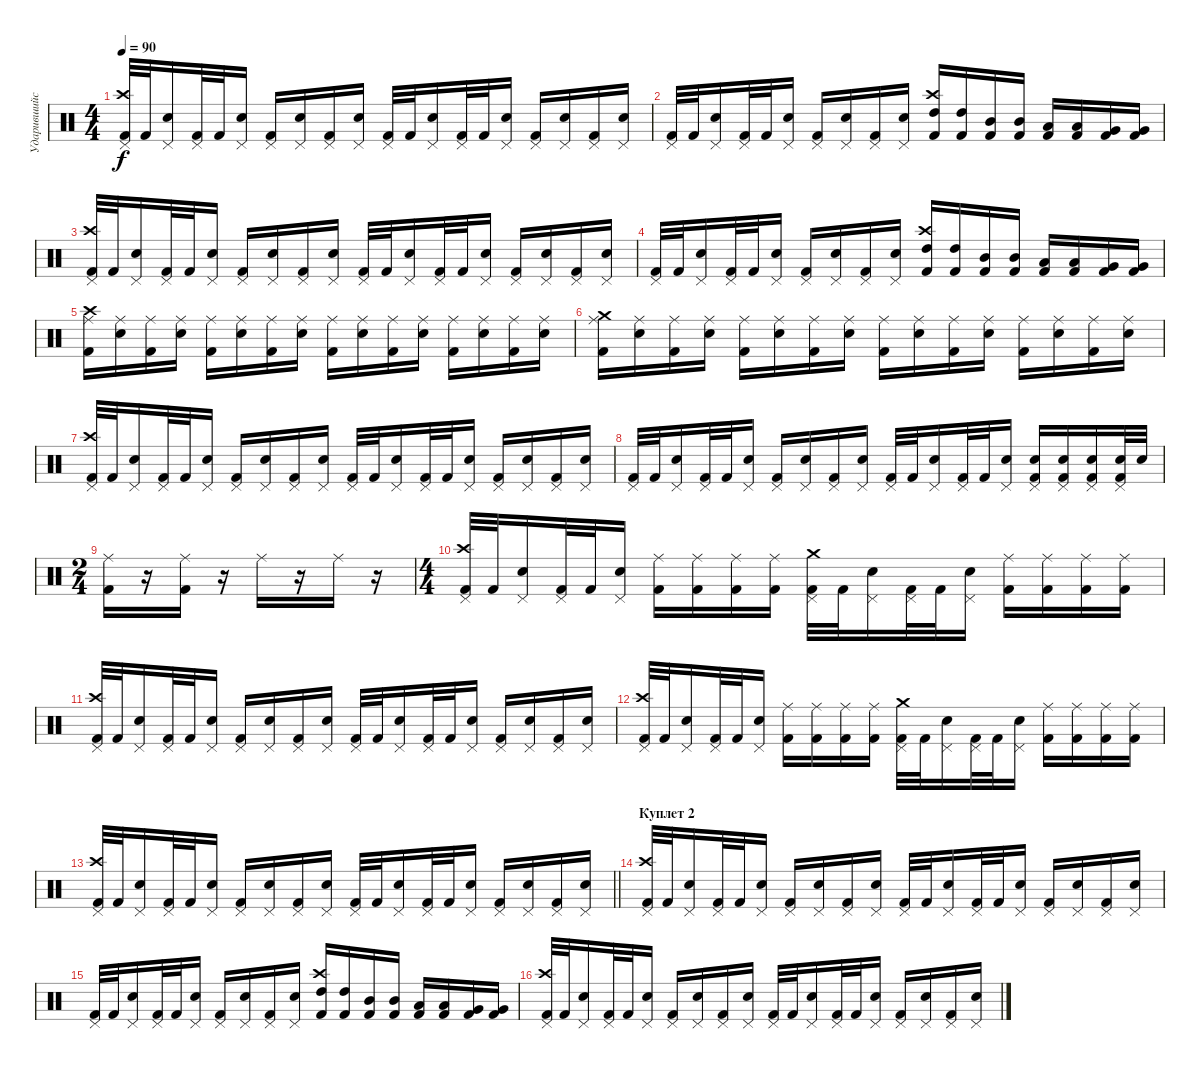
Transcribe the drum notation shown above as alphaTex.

\track ("Ударившийся" "Ударившийс") {instrument percussion}
\staff {score}
\articulation defaults
\ts (4 4)
\tempo 90
\clef neutral
\ks c
("Kick (hit) 2" "Crash high (hit)" "Pedal Hi-Hat (hit)").32{dy f} "Kick (hit) 2".32 ("Snare (hit) 2" "Pedal Hi-Hat (hit)").16 ("Kick (hit) 2" "Pedal Hi-Hat (hit)").32 "Kick (hit) 2".32 ("Snare (hit) 2" "Pedal Hi-Hat (hit)").16 ("Kick (hit) 2" "Pedal Hi-Hat (hit)").16 ("Snare (hit) 2" "Pedal Hi-Hat (hit)").16 ("Kick (hit) 2" "Pedal Hi-Hat (hit)").16 ("Snare (hit) 2" "Pedal Hi-Hat (hit)").16 ("Kick (hit) 2" "Pedal Hi-Hat (hit)").32 "Kick (hit) 2".32 ("Snare (hit) 2" "Pedal Hi-Hat (hit)").16 ("Kick (hit) 2" "Pedal Hi-Hat (hit)").32 "Kick (hit) 2".32 ("Snare (hit) 2" "Pedal Hi-Hat (hit)").16 ("Kick (hit) 2" "Pedal Hi-Hat (hit)").16 ("Snare (hit) 2" "Pedal Hi-Hat (hit)").16 ("Kick (hit) 2" "Pedal Hi-Hat (hit)").16 ("Snare (hit) 2" "Pedal Hi-Hat (hit)").16 |
("Kick (hit) 2" "Pedal Hi-Hat (hit)").32 "Kick (hit) 2".32 ("Snare (hit) 2" "Pedal Hi-Hat (hit)").16 ("Kick (hit) 2" "Pedal Hi-Hat (hit)").32 "Kick (hit) 2".32 ("Snare (hit) 2" "Pedal Hi-Hat (hit)").16 ("Kick (hit) 2" "Pedal Hi-Hat (hit)").16 ("Snare (hit) 2" "Pedal Hi-Hat (hit)").16 ("Kick (hit) 2" "Pedal Hi-Hat (hit)").16 ("Snare (hit) 2" "Pedal Hi-Hat (hit)").16 ("High Tom (hit)" "Kick (hit) 2" "Crash high (hit)").16 ("High Tom (hit)" "Kick (hit) 2").16 ("Mid Tom (hit)" "Kick (hit) 2").16 ("Mid Tom (hit)" "Kick (hit) 2").16 ("Low Tom (hit)" "Kick (hit) 2").16 ("Low Tom (hit)" "Kick (hit) 2").16 ("Very Low Tom (hit)" "Kick (hit) 2").16 ("Very Low Tom (hit)" "Kick (hit) 2").16 |
("Kick (hit) 2" "Crash high (hit)" "Pedal Hi-Hat (hit)").32 "Kick (hit) 2".32 ("Snare (hit) 2" "Pedal Hi-Hat (hit)").16 ("Kick (hit) 2" "Pedal Hi-Hat (hit)").32 "Kick (hit) 2".32 ("Snare (hit) 2" "Pedal Hi-Hat (hit)").16 ("Kick (hit) 2" "Pedal Hi-Hat (hit)").16 ("Snare (hit) 2" "Pedal Hi-Hat (hit)").16 ("Kick (hit) 2" "Pedal Hi-Hat (hit)").16 ("Snare (hit) 2" "Pedal Hi-Hat (hit)").16 ("Kick (hit) 2" "Pedal Hi-Hat (hit)").32 "Kick (hit) 2".32 ("Snare (hit) 2" "Pedal Hi-Hat (hit)").16 ("Kick (hit) 2" "Pedal Hi-Hat (hit)").32 "Kick (hit) 2".32 ("Snare (hit) 2" "Pedal Hi-Hat (hit)").16 ("Kick (hit) 2" "Pedal Hi-Hat (hit)").16 ("Snare (hit) 2" "Pedal Hi-Hat (hit)").16 ("Kick (hit) 2" "Pedal Hi-Hat (hit)").16 ("Snare (hit) 2" "Pedal Hi-Hat (hit)").16 |
("Kick (hit) 2" "Pedal Hi-Hat (hit)").32 "Kick (hit) 2".32 ("Snare (hit) 2" "Pedal Hi-Hat (hit)").16 ("Kick (hit) 2" "Pedal Hi-Hat (hit)").32 "Kick (hit) 2".32 ("Snare (hit) 2" "Pedal Hi-Hat (hit)").16 ("Kick (hit) 2" "Pedal Hi-Hat (hit)").16 ("Snare (hit) 2" "Pedal Hi-Hat (hit)").16 ("Kick (hit) 2" "Pedal Hi-Hat (hit)").16 ("Snare (hit) 2" "Pedal Hi-Hat (hit)").16 ("High Tom (hit)" "Kick (hit) 2" "Crash high (hit)").16 ("High Tom (hit)" "Kick (hit) 2").16 ("Mid Tom (hit)" "Kick (hit) 2").16 ("Mid Tom (hit)" "Kick (hit) 2").16 ("Low Tom (hit)" "Kick (hit) 2").16 ("Low Tom (hit)" "Kick (hit) 2").16 ("Very Low Tom (hit)" "Kick (hit) 2").16 ("Very Low Tom (hit)" "Kick (hit) 2").16 |
("Kick (hit) 2" "Ride (middle)" "Crash high (hit)").16 ("Snare (hit) 2" "Ride (middle)").16 ("Kick (hit) 2" "Ride (middle)").16 ("Snare (hit) 2" "Ride (middle)").16 ("Kick (hit) 2" "Ride (middle)").16 ("Snare (hit) 2" "Ride (middle)").16 ("Kick (hit) 2" "Ride (middle)").16 ("Snare (hit) 2" "Ride (middle)").16 ("Kick (hit) 2" "Ride (middle)").16 ("Snare (hit) 2" "Ride (middle)").16 ("Kick (hit) 2" "Ride (middle)").16 ("Snare (hit) 2" "Ride (middle)").16 ("Kick (hit) 2" "Ride (middle)").16 ("Snare (hit) 2" "Ride (middle)").16 ("Kick (hit) 2" "Ride (middle)").16 ("Snare (hit) 2" "Ride (middle)").16 |
("Kick (hit) 2" "Ride (middle)" "Crash medium (hit)").16 ("Snare (hit) 2" "Ride (middle)").16 ("Kick (hit) 2" "Ride (middle)").16 ("Snare (hit) 2" "Ride (middle)").16 ("Kick (hit) 2" "Ride (middle)").16 ("Snare (hit) 2" "Ride (middle)").16 ("Kick (hit) 2" "Ride (middle)").16 ("Snare (hit) 2" "Ride (middle)").16 ("Kick (hit) 2" "Ride (middle)").16 ("Snare (hit) 2" "Ride (middle)").16 ("Kick (hit) 2" "Ride (middle)").16 ("Snare (hit) 2" "Ride (middle)").16 ("Kick (hit) 2" "Ride (middle)").16 ("Snare (hit) 2" "Ride (middle)").16 ("Kick (hit) 2" "Ride (middle)").16 ("Snare (hit) 2" "Ride (middle)").16 |
("Kick (hit) 2" "Crash high (hit)" "Pedal Hi-Hat (hit)").32 "Kick (hit) 2".32 ("Snare (hit) 2" "Pedal Hi-Hat (hit)").16 ("Kick (hit) 2" "Pedal Hi-Hat (hit)").32 "Kick (hit) 2".32 ("Snare (hit) 2" "Pedal Hi-Hat (hit)").16 ("Kick (hit) 2" "Pedal Hi-Hat (hit)").16 ("Snare (hit) 2" "Pedal Hi-Hat (hit)").16 ("Kick (hit) 2" "Pedal Hi-Hat (hit)").16 ("Snare (hit) 2" "Pedal Hi-Hat (hit)").16 ("Kick (hit) 2" "Pedal Hi-Hat (hit)").32 "Kick (hit) 2".32 ("Snare (hit) 2" "Pedal Hi-Hat (hit)").16 ("Kick (hit) 2" "Pedal Hi-Hat (hit)").32 "Kick (hit) 2".32 ("Snare (hit) 2" "Pedal Hi-Hat (hit)").16 ("Kick (hit) 2" "Pedal Hi-Hat (hit)").16 ("Snare (hit) 2" "Pedal Hi-Hat (hit)").16 ("Kick (hit) 2" "Pedal Hi-Hat (hit)").16 ("Snare (hit) 2" "Pedal Hi-Hat (hit)").16 |
("Kick (hit) 2" "Pedal Hi-Hat (hit)").32 "Kick (hit) 2".32 ("Snare (hit) 2" "Pedal Hi-Hat (hit)").16 ("Kick (hit) 2" "Pedal Hi-Hat (hit)").32 "Kick (hit) 2".32 ("Snare (hit) 2" "Pedal Hi-Hat (hit)").16 ("Kick (hit) 2" "Pedal Hi-Hat (hit)").16 ("Snare (hit) 2" "Pedal Hi-Hat (hit)").16 ("Kick (hit) 2" "Pedal Hi-Hat (hit)").16 ("Snare (hit) 2" "Pedal Hi-Hat (hit)").16 ("Kick (hit) 2" "Pedal Hi-Hat (hit)").32 "Kick (hit) 2".32 ("Snare (hit) 2" "Pedal Hi-Hat (hit)").16 ("Kick (hit) 2" "Pedal Hi-Hat (hit)").32 "Kick (hit) 2".32 ("Snare (hit) 2" "Pedal Hi-Hat (hit)").16 ("Snare (hit) 2" "Kick (hit) 2" "Pedal Hi-Hat (hit)").16 ("Snare (hit) 2" "Kick (hit) 2" "Pedal Hi-Hat (hit)").16 ("Snare (hit) 2" "Kick (hit) 2" "Pedal Hi-Hat (hit)").16 ("Snare (hit) 2" "Kick (hit) 2" "Pedal Hi-Hat (hit)").32 "Snare (hit) 2".32 |
\ts (2 4)
("Kick (hit) 2" "Ride (middle)").16 r.16 ("Kick (hit) 2" "Ride (middle)").16 r.16 "Ride (middle)".16 r.16 "Ride (middle)".16 r.16 |
\ts (4 4)
("Kick (hit) 2" "Crash high (hit)" "Pedal Hi-Hat (hit)").32 "Kick (hit) 2".32 ("Snare (hit) 2" "Pedal Hi-Hat (hit)").16 ("Kick (hit) 2" "Pedal Hi-Hat (hit)").32 "Kick (hit) 2".32 ("Snare (hit) 2" "Pedal Hi-Hat (hit)").16 ("Kick (hit) 2" "Ride (middle)").16 ("Kick (hit) 2" "Ride (middle)").16 ("Kick (hit) 2" "Ride (middle)").16 ("Kick (hit) 2" "Ride (middle)").16 ("Kick (hit) 2" "Crash medium (hit)" "Pedal Hi-Hat (hit)").32 "Kick (hit) 2".32 ("Snare (hit) 2" "Pedal Hi-Hat (hit)").16 ("Kick (hit) 2" "Pedal Hi-Hat (hit)").32 "Kick (hit) 2".32 ("Snare (hit) 2" "Pedal Hi-Hat (hit)").16 ("Kick (hit) 2" "Ride (middle)").16 ("Kick (hit) 2" "Ride (middle)").16 ("Kick (hit) 2" "Ride (middle)").16 ("Kick (hit) 2" "Ride (middle)").16 |
("Kick (hit) 2" "Crash high (hit)" "Pedal Hi-Hat (hit)").32 "Kick (hit) 2".32 ("Snare (hit) 2" "Pedal Hi-Hat (hit)").16 ("Kick (hit) 2" "Pedal Hi-Hat (hit)").32 "Kick (hit) 2".32 ("Snare (hit) 2" "Pedal Hi-Hat (hit)").16 ("Kick (hit) 2" "Pedal Hi-Hat (hit)").16 ("Snare (hit) 2" "Pedal Hi-Hat (hit)").16 ("Kick (hit) 2" "Pedal Hi-Hat (hit)").16 ("Snare (hit) 2" "Pedal Hi-Hat (hit)").16 ("Kick (hit) 2" "Pedal Hi-Hat (hit)").32 "Kick (hit) 2".32 ("Snare (hit) 2" "Pedal Hi-Hat (hit)").16 ("Kick (hit) 2" "Pedal Hi-Hat (hit)").32 "Kick (hit) 2".32 ("Snare (hit) 2" "Pedal Hi-Hat (hit)").16 ("Kick (hit) 2" "Pedal Hi-Hat (hit)").16 ("Snare (hit) 2" "Pedal Hi-Hat (hit)").16 ("Kick (hit) 2" "Pedal Hi-Hat (hit)").16 ("Snare (hit) 2" "Pedal Hi-Hat (hit)").16 |
("Kick (hit) 2" "Crash high (hit)" "Pedal Hi-Hat (hit)").32 "Kick (hit) 2".32 ("Snare (hit) 2" "Pedal Hi-Hat (hit)").16 ("Kick (hit) 2" "Pedal Hi-Hat (hit)").32 "Kick (hit) 2".32 ("Snare (hit) 2" "Pedal Hi-Hat (hit)").16 ("Kick (hit) 2" "Ride (middle)").16 ("Kick (hit) 2" "Ride (middle)").16 ("Kick (hit) 2" "Ride (middle)").16 ("Kick (hit) 2" "Ride (middle)").16 ("Kick (hit) 2" "Crash medium (hit)" "Pedal Hi-Hat (hit)").32 "Kick (hit) 2".32 ("Snare (hit) 2" "Pedal Hi-Hat (hit)").16 ("Kick (hit) 2" "Pedal Hi-Hat (hit)").32 "Kick (hit) 2".32 ("Snare (hit) 2" "Pedal Hi-Hat (hit)").16 ("Kick (hit) 2" "Ride (middle)").16 ("Kick (hit) 2" "Ride (middle)").16 ("Kick (hit) 2" "Ride (middle)").16 ("Kick (hit) 2" "Ride (middle)").16 |
\barLineRight lightlight
("Kick (hit) 2" "Crash high (hit)" "Pedal Hi-Hat (hit)").32 "Kick (hit) 2".32 ("Snare (hit) 2" "Pedal Hi-Hat (hit)").16 ("Kick (hit) 2" "Pedal Hi-Hat (hit)").32 "Kick (hit) 2".32 ("Snare (hit) 2" "Pedal Hi-Hat (hit)").16 ("Kick (hit) 2" "Pedal Hi-Hat (hit)").16 ("Snare (hit) 2" "Pedal Hi-Hat (hit)").16 ("Kick (hit) 2" "Pedal Hi-Hat (hit)").16 ("Snare (hit) 2" "Pedal Hi-Hat (hit)").16 ("Kick (hit) 2" "Pedal Hi-Hat (hit)").32 "Kick (hit) 2".32 ("Snare (hit) 2" "Pedal Hi-Hat (hit)").16 ("Kick (hit) 2" "Pedal Hi-Hat (hit)").32 "Kick (hit) 2".32 ("Snare (hit) 2" "Pedal Hi-Hat (hit)").16 ("Kick (hit) 2" "Pedal Hi-Hat (hit)").16 ("Snare (hit) 2" "Pedal Hi-Hat (hit)").16 ("Kick (hit) 2" "Pedal Hi-Hat (hit)").16 ("Snare (hit) 2" "Pedal Hi-Hat (hit)").16 |
\section ("" "Куплет 2")
("Kick (hit) 2" "Crash high (hit)" "Pedal Hi-Hat (hit)").32 "Kick (hit) 2".32 ("Snare (hit) 2" "Pedal Hi-Hat (hit)").16 ("Kick (hit) 2" "Pedal Hi-Hat (hit)").32 "Kick (hit) 2".32 ("Snare (hit) 2" "Pedal Hi-Hat (hit)").16 ("Kick (hit) 2" "Pedal Hi-Hat (hit)").16 ("Snare (hit) 2" "Pedal Hi-Hat (hit)").16 ("Kick (hit) 2" "Pedal Hi-Hat (hit)").16 ("Snare (hit) 2" "Pedal Hi-Hat (hit)").16 ("Kick (hit) 2" "Pedal Hi-Hat (hit)").32 "Kick (hit) 2".32 ("Snare (hit) 2" "Pedal Hi-Hat (hit)").16 ("Kick (hit) 2" "Pedal Hi-Hat (hit)").32 "Kick (hit) 2".32 ("Snare (hit) 2" "Pedal Hi-Hat (hit)").16 ("Kick (hit) 2" "Pedal Hi-Hat (hit)").16 ("Snare (hit) 2" "Pedal Hi-Hat (hit)").16 ("Kick (hit) 2" "Pedal Hi-Hat (hit)").16 ("Snare (hit) 2" "Pedal Hi-Hat (hit)").16 |
("Kick (hit) 2" "Pedal Hi-Hat (hit)").32 "Kick (hit) 2".32 ("Snare (hit) 2" "Pedal Hi-Hat (hit)").16 ("Kick (hit) 2" "Pedal Hi-Hat (hit)").32 "Kick (hit) 2".32 ("Snare (hit) 2" "Pedal Hi-Hat (hit)").16 ("Kick (hit) 2" "Pedal Hi-Hat (hit)").16 ("Snare (hit) 2" "Pedal Hi-Hat (hit)").16 ("Kick (hit) 2" "Pedal Hi-Hat (hit)").16 ("Snare (hit) 2" "Pedal Hi-Hat (hit)").16 ("High Tom (hit)" "Kick (hit) 2" "Crash high (hit)").16 ("High Tom (hit)" "Kick (hit) 2").16 ("Mid Tom (hit)" "Kick (hit) 2").16 ("Mid Tom (hit)" "Kick (hit) 2").16 ("Low Tom (hit)" "Kick (hit) 2").16 ("Low Tom (hit)" "Kick (hit) 2").16 ("Very Low Tom (hit)" "Kick (hit) 2").16 ("Very Low Tom (hit)" "Kick (hit) 2").16 |
("Kick (hit) 2" "Crash high (hit)" "Pedal Hi-Hat (hit)").32 "Kick (hit) 2".32 ("Snare (hit) 2" "Pedal Hi-Hat (hit)").16 ("Kick (hit) 2" "Pedal Hi-Hat (hit)").32 "Kick (hit) 2".32 ("Snare (hit) 2" "Pedal Hi-Hat (hit)").16 ("Kick (hit) 2" "Pedal Hi-Hat (hit)").16 ("Snare (hit) 2" "Pedal Hi-Hat (hit)").16 ("Kick (hit) 2" "Pedal Hi-Hat (hit)").16 ("Snare (hit) 2" "Pedal Hi-Hat (hit)").16 ("Kick (hit) 2" "Pedal Hi-Hat (hit)").32 "Kick (hit) 2".32 ("Snare (hit) 2" "Pedal Hi-Hat (hit)").16 ("Kick (hit) 2" "Pedal Hi-Hat (hit)").32 "Kick (hit) 2".32 ("Snare (hit) 2" "Pedal Hi-Hat (hit)").16 ("Kick (hit) 2" "Pedal Hi-Hat (hit)").16 ("Snare (hit) 2" "Pedal Hi-Hat (hit)").16 ("Kick (hit) 2" "Pedal Hi-Hat (hit)").16 ("Snare (hit) 2" "Pedal Hi-Hat (hit)").16
